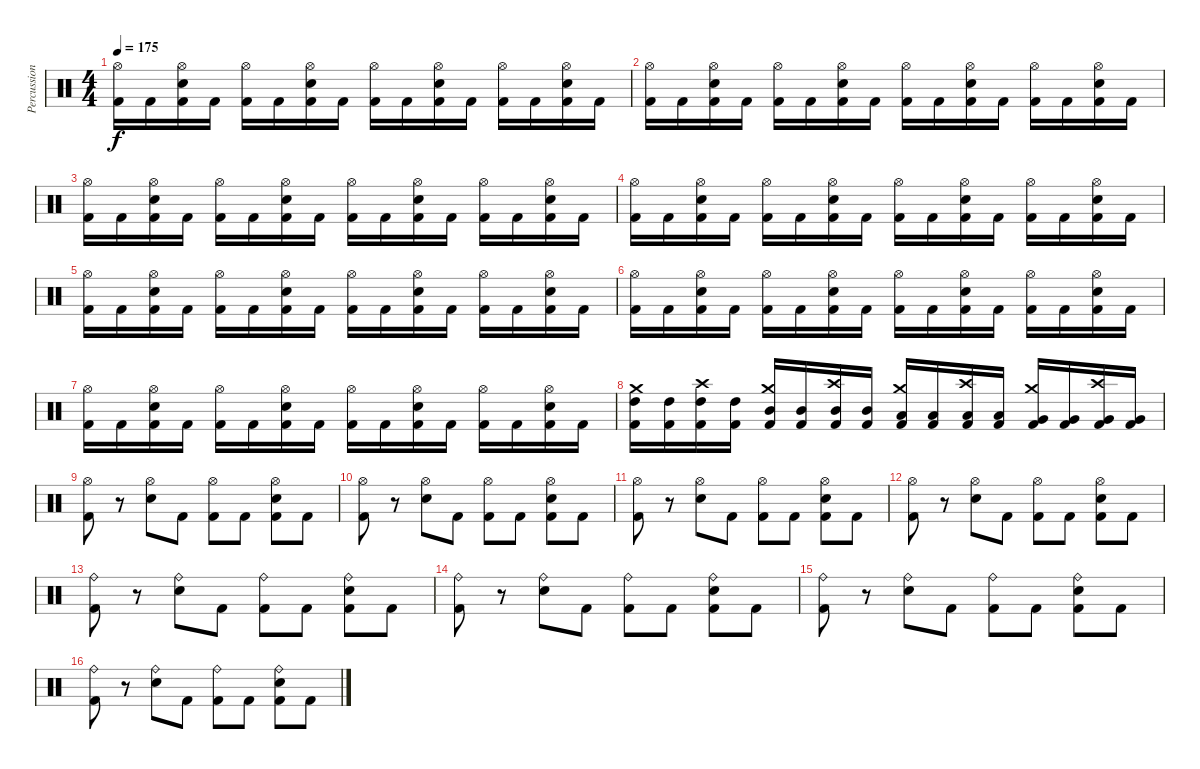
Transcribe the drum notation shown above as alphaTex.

\track ("Percussion" "Percussion") {instrument percussion}
\staff {score}
\articulation defaults
\ts (4 4)
\tempo 175
\clef neutral
\ks c
("Hi-Hat (open)" "Kick (hit) 2").16{dy f} "Kick (hit) 2".16 ("Hi-Hat (open)" "Snare (hit) 2" "Kick (hit) 2").16 "Kick (hit) 2".16 ("Hi-Hat (open)" "Kick (hit) 2").16 "Kick (hit) 2".16 ("Hi-Hat (open)" "Snare (hit) 2" "Kick (hit) 2").16 "Kick (hit) 2".16 ("Hi-Hat (open)" "Kick (hit) 2").16 "Kick (hit) 2".16 ("Hi-Hat (open)" "Snare (hit) 2" "Kick (hit) 2").16 "Kick (hit) 2".16 ("Hi-Hat (open)" "Kick (hit) 2").16 "Kick (hit) 2".16 ("Hi-Hat (open)" "Snare (hit) 2" "Kick (hit) 2").16 "Kick (hit) 2".16 |
("Hi-Hat (open)" "Kick (hit) 2").16 "Kick (hit) 2".16 ("Hi-Hat (open)" "Snare (hit) 2" "Kick (hit) 2").16 "Kick (hit) 2".16 ("Hi-Hat (open)" "Kick (hit) 2").16 "Kick (hit) 2".16 ("Hi-Hat (open)" "Snare (hit) 2" "Kick (hit) 2").16 "Kick (hit) 2".16 ("Hi-Hat (open)" "Kick (hit) 2").16 "Kick (hit) 2".16 ("Hi-Hat (open)" "Snare (hit) 2" "Kick (hit) 2").16 "Kick (hit) 2".16 ("Hi-Hat (open)" "Kick (hit) 2").16 "Kick (hit) 2".16 ("Hi-Hat (open)" "Snare (hit) 2" "Kick (hit) 2").16 "Kick (hit) 2".16 |
("Hi-Hat (open)" "Kick (hit) 2").16 "Kick (hit) 2".16 ("Hi-Hat (open)" "Snare (hit) 2" "Kick (hit) 2").16 "Kick (hit) 2".16 ("Hi-Hat (open)" "Kick (hit) 2").16 "Kick (hit) 2".16 ("Hi-Hat (open)" "Snare (hit) 2" "Kick (hit) 2").16 "Kick (hit) 2".16 ("Hi-Hat (open)" "Kick (hit) 2").16 "Kick (hit) 2".16 ("Hi-Hat (open)" "Snare (hit) 2" "Kick (hit) 2").16 "Kick (hit) 2".16 ("Hi-Hat (open)" "Kick (hit) 2").16 "Kick (hit) 2".16 ("Hi-Hat (open)" "Snare (hit) 2" "Kick (hit) 2").16 "Kick (hit) 2".16 |
("Hi-Hat (open)" "Kick (hit) 2").16 "Kick (hit) 2".16 ("Hi-Hat (open)" "Snare (hit) 2" "Kick (hit) 2").16 "Kick (hit) 2".16 ("Hi-Hat (open)" "Kick (hit) 2").16 "Kick (hit) 2".16 ("Hi-Hat (open)" "Snare (hit) 2" "Kick (hit) 2").16 "Kick (hit) 2".16 ("Hi-Hat (open)" "Kick (hit) 2").16 "Kick (hit) 2".16 ("Hi-Hat (open)" "Snare (hit) 2" "Kick (hit) 2").16 "Kick (hit) 2".16 ("Hi-Hat (open)" "Kick (hit) 2").16 "Kick (hit) 2".16 ("Hi-Hat (open)" "Snare (hit) 2" "Kick (hit) 2").16 "Kick (hit) 2".16 |
("Hi-Hat (open)" "Kick (hit) 2").16 "Kick (hit) 2".16 ("Hi-Hat (open)" "Snare (hit) 2" "Kick (hit) 2").16 "Kick (hit) 2".16 ("Hi-Hat (open)" "Kick (hit) 2").16 "Kick (hit) 2".16 ("Hi-Hat (open)" "Snare (hit) 2" "Kick (hit) 2").16 "Kick (hit) 2".16 ("Hi-Hat (open)" "Kick (hit) 2").16 "Kick (hit) 2".16 ("Hi-Hat (open)" "Snare (hit) 2" "Kick (hit) 2").16 "Kick (hit) 2".16 ("Hi-Hat (open)" "Kick (hit) 2").16 "Kick (hit) 2".16 ("Hi-Hat (open)" "Snare (hit) 2" "Kick (hit) 2").16 "Kick (hit) 2".16 |
("Hi-Hat (open)" "Kick (hit) 2").16 "Kick (hit) 2".16 ("Hi-Hat (open)" "Snare (hit) 2" "Kick (hit) 2").16 "Kick (hit) 2".16 ("Hi-Hat (open)" "Kick (hit) 2").16 "Kick (hit) 2".16 ("Hi-Hat (open)" "Snare (hit) 2" "Kick (hit) 2").16 "Kick (hit) 2".16 ("Hi-Hat (open)" "Kick (hit) 2").16 "Kick (hit) 2".16 ("Hi-Hat (open)" "Snare (hit) 2" "Kick (hit) 2").16 "Kick (hit) 2".16 ("Hi-Hat (open)" "Kick (hit) 2").16 "Kick (hit) 2".16 ("Hi-Hat (open)" "Snare (hit) 2" "Kick (hit) 2").16 "Kick (hit) 2".16 |
("Hi-Hat (open)" "Kick (hit) 2").16 "Kick (hit) 2".16 ("Hi-Hat (open)" "Snare (hit) 2" "Kick (hit) 2").16 "Kick (hit) 2".16 ("Hi-Hat (open)" "Kick (hit) 2").16 "Kick (hit) 2".16 ("Hi-Hat (open)" "Snare (hit) 2" "Kick (hit) 2").16 "Kick (hit) 2".16 ("Hi-Hat (open)" "Kick (hit) 2").16 "Kick (hit) 2".16 ("Hi-Hat (open)" "Snare (hit) 2" "Kick (hit) 2").16 "Kick (hit) 2".16 ("Hi-Hat (open)" "Kick (hit) 2").16 "Kick (hit) 2".16 ("Hi-Hat (open)" "Snare (hit) 2" "Kick (hit) 2").16 "Kick (hit) 2".16 |
("High Tom (hit)" "Crash medium (hit)" "Kick (hit) 2").16 ("High Tom (hit)" "Kick (hit) 2").16 ("High Tom (hit)" "Crash high (hit)" "Kick (hit) 2").16 ("High Tom (hit)" "Kick (hit) 2").16 ("Mid Tom (hit)" "Crash medium (hit)" "Kick (hit) 2").16 ("Mid Tom (hit)" "Kick (hit) 2").16 ("Mid Tom (hit)" "Crash high (hit)" "Kick (hit) 2").16 ("Mid Tom (hit)" "Kick (hit) 2").16 ("Low Tom (hit)" "Crash medium (hit)" "Kick (hit) 2").16 ("Low Tom (hit)" "Kick (hit) 2").16 ("Low Tom (hit)" "Crash high (hit)" "Kick (hit) 2").16 ("Low Tom (hit)" "Kick (hit) 2").16 ("Very Low Tom (hit)" "Crash medium (hit)" "Kick (hit) 2").16 ("Very Low Tom (hit)" "Kick (hit) 2").16 ("Very Low Tom (hit)" "Crash high (hit)" "Kick (hit) 2").16 ("Very Low Tom (hit)" "Kick (hit) 2").16 |
("Kick (hit) 2" "Hi-Hat (open)").8 r.8 ("Snare (hit) 2" "Hi-Hat (open)").8 "Kick (hit) 2".8 ("Kick (hit) 2" "Hi-Hat (open)").8 "Kick (hit) 2".8 ("Kick (hit) 2" "Snare (hit) 2" "Hi-Hat (open)").8 "Kick (hit) 2".8 |
("Kick (hit) 2" "Hi-Hat (open)").8 r.8 ("Snare (hit) 2" "Hi-Hat (open)").8 "Kick (hit) 2".8 ("Kick (hit) 2" "Hi-Hat (open)").8 "Kick (hit) 2".8 ("Kick (hit) 2" "Snare (hit) 2" "Hi-Hat (open)").8 "Kick (hit) 2".8 |
("Kick (hit) 2" "Hi-Hat (open)").8 r.8 ("Snare (hit) 2" "Hi-Hat (open)").8 "Kick (hit) 2".8 ("Kick (hit) 2" "Hi-Hat (open)").8 "Kick (hit) 2".8 ("Kick (hit) 2" "Snare (hit) 2" "Hi-Hat (open)").8 "Kick (hit) 2".8 |
("Kick (hit) 2" "Hi-Hat (open)").8 r.8 ("Snare (hit) 2" "Hi-Hat (open)").8 "Kick (hit) 2".8 ("Kick (hit) 2" "Hi-Hat (open)").8 "Kick (hit) 2".8 ("Kick (hit) 2" "Snare (hit) 2" "Hi-Hat (open)").8 "Kick (hit) 2".8 |
("Kick (hit) 2" "Ride (bell)").8 r.8 ("Snare (hit) 2" "Ride (bell)").8 "Kick (hit) 2".8 ("Kick (hit) 2" "Ride (bell)").8 "Kick (hit) 2".8 ("Kick (hit) 2" "Snare (hit) 2" "Ride (bell)").8 "Kick (hit) 2".8 |
("Kick (hit) 2" "Ride (bell)").8 r.8 ("Snare (hit) 2" "Ride (bell)").8 "Kick (hit) 2".8 ("Kick (hit) 2" "Ride (bell)").8 "Kick (hit) 2".8 ("Kick (hit) 2" "Snare (hit) 2" "Ride (bell)").8 "Kick (hit) 2".8 |
("Kick (hit) 2" "Ride (bell)").8 r.8 ("Snare (hit) 2" "Ride (bell)").8 "Kick (hit) 2".8 ("Kick (hit) 2" "Ride (bell)").8 "Kick (hit) 2".8 ("Kick (hit) 2" "Snare (hit) 2" "Ride (bell)").8 "Kick (hit) 2".8 |
("Kick (hit) 2" "Ride (bell)").8 r.8 ("Snare (hit) 2" "Ride (bell)").8 "Kick (hit) 2".8 ("Kick (hit) 2" "Ride (bell)").8 "Kick (hit) 2".8 ("Kick (hit) 2" "Snare (hit) 2" "Ride (bell)").8 "Kick (hit) 2".8
